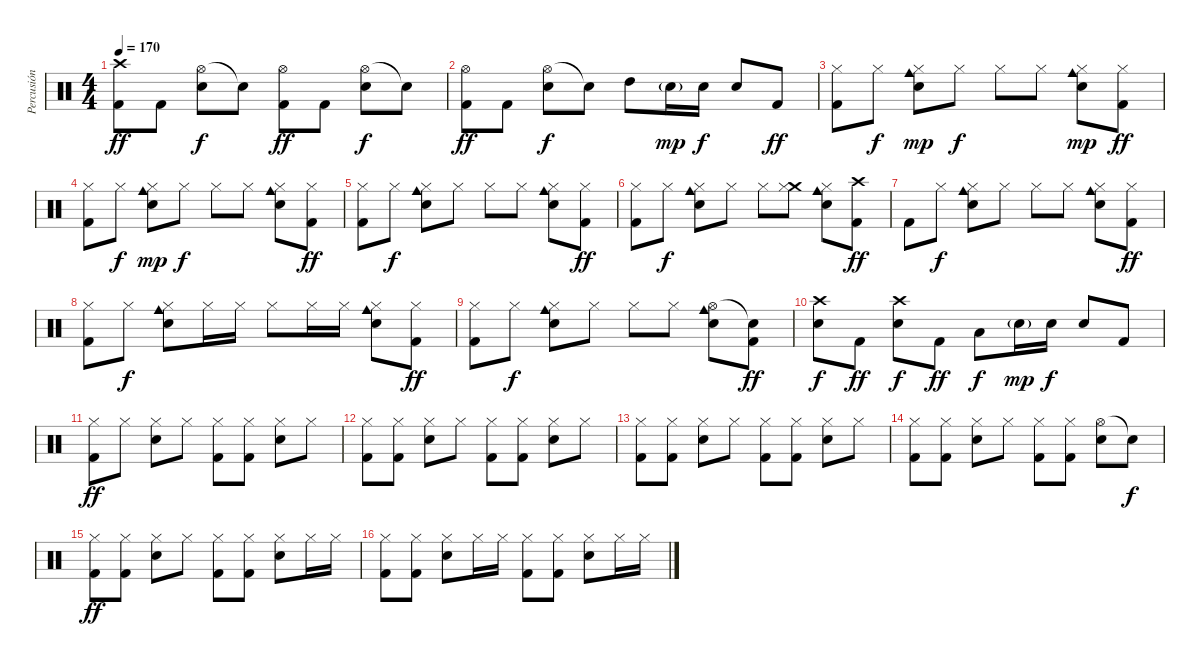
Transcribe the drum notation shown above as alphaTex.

\track ("Percusión" "Percusión") {instrument percussion}
\staff {score}
\articulation defaults
\ts (4 4)
\tempo 170
\clef neutral
\ks c
("Crash high (hit)" "Kick (hit) 2").8{dy ff} "Kick (hit) 2".8 ("Hi-Hat (open)" "Snare (hit) 2").8{dy f} "Snare (hit)"{t}.8 ("Hi-Hat (open)" "Kick (hit) 2").8{dy ff} "Kick (hit) 2".8 ("Hi-Hat (open)" "Snare (hit) 2").8{dy f} "Snare (hit)"{t}.8 |
("Hi-Hat (open)" "Kick (hit) 2").8{dy ff} "Kick (hit) 2".8 ("Hi-Hat (open)" "Snare (hit) 2").8{dy f} "Snare (hit)"{t}.8 "High Tom (hit)".8 "Snare (hit) 2"{g}.16{dy mp} "Snare (hit) 2".16{dy f} "Snare (hit) 2".8 "Kick (hit) 2".8{dy ff} |
("Hi-Hat (closed)" "Kick (hit) 2").8 "Hi-Hat (closed)".8{dy f} ("Hi-Hat (closed)" "Cowbell medium (hit)" "Snare (hit) 2").8{dy mp} "Hi-Hat (closed)".8{dy f} "Hi-Hat (closed)".8 "Hi-Hat (closed)".8 ("Hi-Hat (closed)" "Cowbell medium (hit)" "Snare (hit) 2").8{dy mp} ("Hi-Hat (closed)" "Kick (hit) 2").8{dy ff} |
("Hi-Hat (closed)" "Kick (hit) 2").8 "Hi-Hat (closed)".8{dy f} ("Hi-Hat (closed)" "Cowbell medium (hit)" "Snare (hit) 2").8{dy mp} "Hi-Hat (closed)".8{dy f} "Hi-Hat (closed)".8 "Hi-Hat (closed)".8 ("Hi-Hat (closed)" "Cowbell medium (hit)" "Snare (hit) 2").8 ("Hi-Hat (closed)" "Kick (hit) 2").8{dy ff} |
("Hi-Hat (closed)" "Kick (hit) 2").8 "Hi-Hat (closed)".8{dy f} ("Hi-Hat (closed)" "Cowbell medium (hit)" "Snare (hit) 2").8 "Hi-Hat (closed)".8 "Hi-Hat (closed)".8 "Hi-Hat (closed)".8 ("Hi-Hat (closed)" "Cowbell medium (hit)" "Snare (hit) 2").8 ("Hi-Hat (closed)" "Kick (hit) 2").8{dy ff} |
("Hi-Hat (closed)" "Kick (hit) 2").8 "Hi-Hat (closed)".8{dy f} ("Hi-Hat (closed)" "Cowbell medium (hit)" "Snare (hit) 2").8 "Hi-Hat (closed)".8 "Hi-Hat (closed)".8 ("Crash medium (hit)" "Hi-Hat (closed)").8 ("Hi-Hat (closed)" "Cowbell medium (hit)" "Snare (hit) 2").8 ("Crash high (hit)" "Kick (hit) 2").8{dy ff} |
"Kick (hit) 2".8 "Hi-Hat (closed)".8{dy f} ("Hi-Hat (closed)" "Cowbell medium (hit)" "Snare (hit) 2").8 "Hi-Hat (closed)".8 "Hi-Hat (closed)".8 "Hi-Hat (closed)".8 ("Hi-Hat (closed)" "Cowbell medium (hit)" "Snare (hit) 2").8 ("Hi-Hat (closed)" "Kick (hit) 2").8{dy ff} |
("Hi-Hat (closed)" "Kick (hit) 2").8 "Hi-Hat (closed)".8{dy f} ("Hi-Hat (closed)" "Cowbell medium (hit)" "Snare (hit) 2").8 "Hi-Hat (closed)".16 "Hi-Hat (closed)".16 "Hi-Hat (closed)".8 "Hi-Hat (closed)".16 "Hi-Hat (closed)".16 ("Hi-Hat (closed)" "Cowbell medium (hit)" "Snare (hit) 2").8 ("Hi-Hat (closed)" "Kick (hit) 2").8{dy ff} |
("Hi-Hat (closed)" "Kick (hit) 2").8 "Hi-Hat (closed)".8{dy f} ("Hi-Hat (closed)" "Cowbell medium (hit)" "Snare (hit) 2").8 "Hi-Hat (closed)".8 "Hi-Hat (closed)".8 "Hi-Hat (closed)".8 ("Hi-Hat (open)" "Cowbell medium (hit)" "Snare (hit) 2").8 ("Snare (hit)"{t} "Kick (hit) 2").8{dy ff} |
("Crash high (hit)" "Snare (hit) 2").8{dy f} "Kick (hit) 2".8{dy ff} ("Crash high (hit)" "Snare (hit) 2").8{dy f} "Kick (hit) 2".8{dy ff} "Low Tom (hit)".8{dy f} "Snare (hit) 2"{g}.16{dy mp} "Snare (hit) 2".16{dy f} "Snare (hit) 2".8 "Kick (hit) 2".8 |
("Hi-Hat (closed)" "Kick (hit) 2").8{dy ff} "Hi-Hat (closed)".8 ("Hi-Hat (closed)" "Snare (hit) 2").8 "Hi-Hat (closed)".8 ("Hi-Hat (closed)" "Kick (hit) 2").8 ("Hi-Hat (closed)" "Kick (hit) 2").8 ("Hi-Hat (closed)" "Snare (hit) 2").8 "Hi-Hat (closed)".8 |
("Hi-Hat (closed)" "Kick (hit) 2").8 ("Hi-Hat (closed)" "Kick (hit) 2").8 ("Hi-Hat (closed)" "Snare (hit) 2").8 "Hi-Hat (closed)".8 ("Hi-Hat (closed)" "Kick (hit) 2").8 ("Hi-Hat (closed)" "Kick (hit) 2").8 ("Hi-Hat (closed)" "Snare (hit) 2").8 "Hi-Hat (closed)".8 |
("Hi-Hat (closed)" "Kick (hit) 2").8 ("Hi-Hat (closed)" "Kick (hit) 2").8 ("Hi-Hat (closed)" "Snare (hit) 2").8 "Hi-Hat (closed)".8 ("Hi-Hat (closed)" "Kick (hit) 2").8 ("Hi-Hat (closed)" "Kick (hit) 2").8 ("Hi-Hat (closed)" "Snare (hit) 2").8 "Hi-Hat (closed)".8 |
("Hi-Hat (closed)" "Kick (hit) 2").8 ("Hi-Hat (closed)" "Kick (hit) 2").8 ("Hi-Hat (closed)" "Snare (hit) 2").8 "Hi-Hat (closed)".8 ("Hi-Hat (closed)" "Kick (hit) 2").8 ("Hi-Hat (closed)" "Kick (hit) 2").8 ("Hi-Hat (open)" "Snare (hit) 2").8 "Snare (hit)"{t}.8{dy f} |
("Hi-Hat (closed)" "Kick (hit) 2").8{dy ff} ("Hi-Hat (closed)" "Kick (hit) 2").8 ("Hi-Hat (closed)" "Snare (hit) 2").8 "Hi-Hat (closed)".8 ("Hi-Hat (closed)" "Kick (hit) 2").8 ("Hi-Hat (closed)" "Kick (hit) 2").8 ("Hi-Hat (closed)" "Snare (hit) 2").8 "Hi-Hat (closed)".16 "Hi-Hat (closed)".16 |
("Hi-Hat (closed)" "Kick (hit) 2").8 ("Hi-Hat (closed)" "Kick (hit) 2").8 ("Hi-Hat (closed)" "Snare (hit) 2").8 "Hi-Hat (closed)".16 "Hi-Hat (closed)".16 ("Hi-Hat (closed)" "Kick (hit) 2").8 ("Hi-Hat (closed)" "Kick (hit) 2").8 ("Hi-Hat (closed)" "Snare (hit) 2").8 "Hi-Hat (closed)".16 "Hi-Hat (closed)".16
